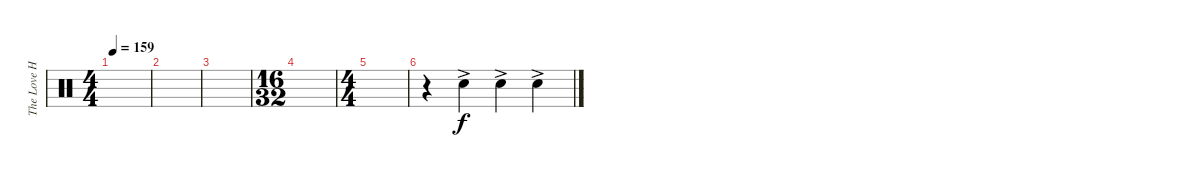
\track ("The Love Haters (Hand Clap)(Drums)" "The Love H") {instrument percussion}
\staff {score}
\articulation defaults
\ts (4 4)
\tempo 159
\clef neutral
\ks c
|
|
|
\ts (16 32)
|
\ts (4 4)
|
r.4 "Hand Clap (hit)"{ac}.4 "Hand Clap (hit)"{ac}.4 "Hand Clap (hit)"{ac}.4
